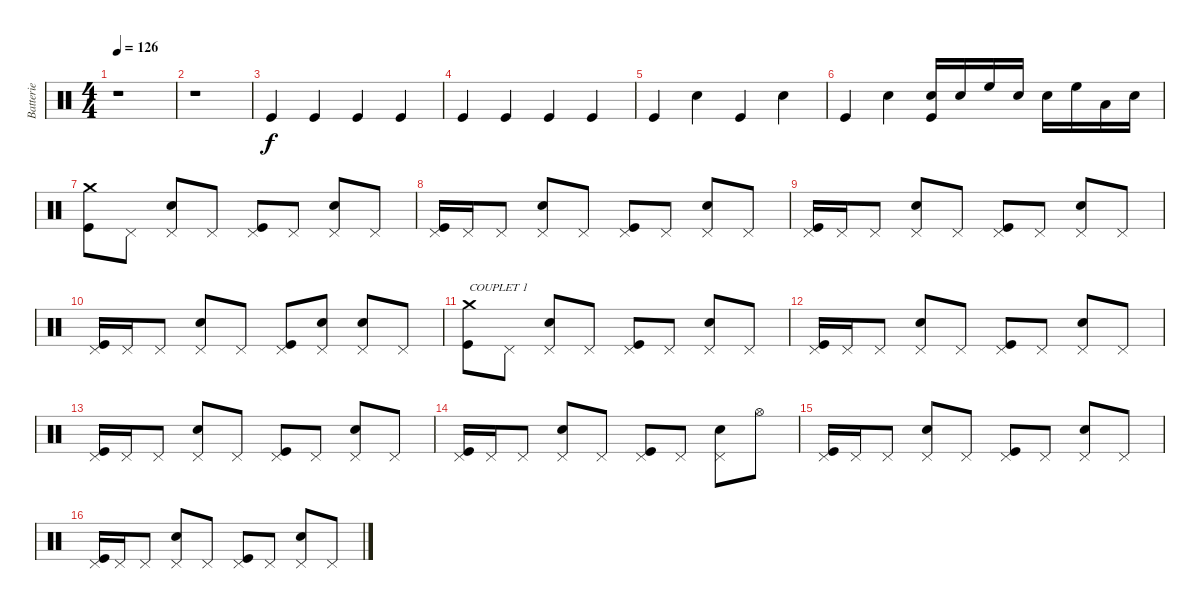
\track ("Batterie" "Batterie") {instrument percussion}
\staff {score}
\articulation defaults
\ts (4 4)
\tempo 126
\clef neutral
\ks c
r.1{dy f} |
r.1 |
"Kick (hit)".4 "Kick (hit)".4 "Kick (hit)".4 "Kick (hit)".4 |
"Kick (hit)".4 "Kick (hit)".4 "Kick (hit)".4 "Kick (hit)".4 |
"Kick (hit)".4 "Snare (hit) 2".4 "Kick (hit)".4 "Snare (hit) 2".4 |
"Kick (hit)".4 "Snare (hit) 2".4 ("Snare (hit) 2" "Kick (hit)").16 "Snare (hit) 2".16 "High Floor Tom (hit)".16 "Snare (hit) 2".16 "Snare (hit) 2".16 "High Floor Tom (hit)".16 "Low Tom (hit)".16 "Snare (hit) 2".16 |
("Crash medium (hit)" "Kick (hit)").8 "Pedal Hi-Hat (hit)".8 ("Pedal Hi-Hat (hit)" "Snare (hit) 2").8 "Pedal Hi-Hat (hit)".8 ("Pedal Hi-Hat (hit)" "Kick (hit)").8 "Pedal Hi-Hat (hit)".8 ("Pedal Hi-Hat (hit)" "Snare (hit) 2").8 "Pedal Hi-Hat (hit)".8 |
("Pedal Hi-Hat (hit)" "Kick (hit)").16 "Pedal Hi-Hat (hit)".16 "Pedal Hi-Hat (hit)".8 ("Pedal Hi-Hat (hit)" "Snare (hit) 2").8 "Pedal Hi-Hat (hit)".8 ("Pedal Hi-Hat (hit)" "Kick (hit)").8 "Pedal Hi-Hat (hit)".8 ("Pedal Hi-Hat (hit)" "Snare (hit) 2").8 "Pedal Hi-Hat (hit)".8 |
("Pedal Hi-Hat (hit)" "Kick (hit)").16 "Pedal Hi-Hat (hit)".16 "Pedal Hi-Hat (hit)".8 ("Pedal Hi-Hat (hit)" "Snare (hit) 2").8 "Pedal Hi-Hat (hit)".8 ("Pedal Hi-Hat (hit)" "Kick (hit)").8 "Pedal Hi-Hat (hit)".8 ("Pedal Hi-Hat (hit)" "Snare (hit) 2").8 "Pedal Hi-Hat (hit)".8 |
("Pedal Hi-Hat (hit)" "Kick (hit)").16 "Pedal Hi-Hat (hit)".16 "Pedal Hi-Hat (hit)".8 ("Pedal Hi-Hat (hit)" "Snare (hit) 2").8 "Pedal Hi-Hat (hit)".8 ("Pedal Hi-Hat (hit)" "Kick (hit)").8 ("Pedal Hi-Hat (hit)" "Snare (hit) 2").8 ("Pedal Hi-Hat (hit)" "Snare (hit) 2").8 "Pedal Hi-Hat (hit)".8 |
("Crash medium (hit)" "Kick (hit)").8{txt "COUPLET 1"} "Pedal Hi-Hat (hit)".8 ("Pedal Hi-Hat (hit)" "Snare (hit) 2").8 "Pedal Hi-Hat (hit)".8 ("Pedal Hi-Hat (hit)" "Kick (hit)").8 "Pedal Hi-Hat (hit)".8 ("Pedal Hi-Hat (hit)" "Snare (hit) 2").8 "Pedal Hi-Hat (hit)".8 |
("Pedal Hi-Hat (hit)" "Kick (hit)").16 "Pedal Hi-Hat (hit)".16 "Pedal Hi-Hat (hit)".8 ("Pedal Hi-Hat (hit)" "Snare (hit) 2").8 "Pedal Hi-Hat (hit)".8 ("Pedal Hi-Hat (hit)" "Kick (hit)").8 "Pedal Hi-Hat (hit)".8 ("Pedal Hi-Hat (hit)" "Snare (hit) 2").8 "Pedal Hi-Hat (hit)".8 |
("Pedal Hi-Hat (hit)" "Kick (hit)").16 "Pedal Hi-Hat (hit)".16 "Pedal Hi-Hat (hit)".8 ("Pedal Hi-Hat (hit)" "Snare (hit) 2").8 "Pedal Hi-Hat (hit)".8 ("Pedal Hi-Hat (hit)" "Kick (hit)").8 "Pedal Hi-Hat (hit)".8 ("Pedal Hi-Hat (hit)" "Snare (hit) 2").8 "Pedal Hi-Hat (hit)".8 |
("Pedal Hi-Hat (hit)" "Kick (hit)").16 "Pedal Hi-Hat (hit)".16 "Pedal Hi-Hat (hit)".8 ("Pedal Hi-Hat (hit)" "Snare (hit) 2").8 "Pedal Hi-Hat (hit)".8 ("Pedal Hi-Hat (hit)" "Kick (hit)").8 "Pedal Hi-Hat (hit)".8 ("Pedal Hi-Hat (hit)" "Snare (hit) 2").8 "Hi-Hat (open)".8 |
("Pedal Hi-Hat (hit)" "Kick (hit)").16 "Pedal Hi-Hat (hit)".16 "Pedal Hi-Hat (hit)".8 ("Pedal Hi-Hat (hit)" "Snare (hit) 2").8 "Pedal Hi-Hat (hit)".8 ("Pedal Hi-Hat (hit)" "Kick (hit)").8 "Pedal Hi-Hat (hit)".8 ("Pedal Hi-Hat (hit)" "Snare (hit) 2").8 "Pedal Hi-Hat (hit)".8 |
("Pedal Hi-Hat (hit)" "Kick (hit)").16 "Pedal Hi-Hat (hit)".16 "Pedal Hi-Hat (hit)".8 ("Pedal Hi-Hat (hit)" "Snare (hit) 2").8 "Pedal Hi-Hat (hit)".8 ("Pedal Hi-Hat (hit)" "Kick (hit)").8 "Pedal Hi-Hat (hit)".8 ("Pedal Hi-Hat (hit)" "Snare (hit) 2").8 "Pedal Hi-Hat (hit)".8
